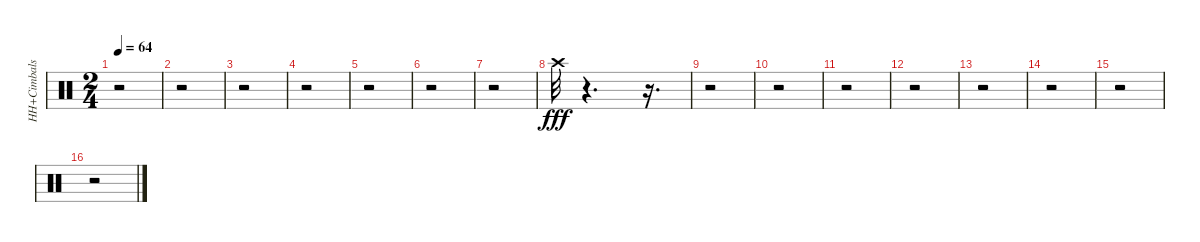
\track ("HH+Cimbals" "HH+Cimbals") {instrument percussion}
\staff {score}
\articulation defaults
\ts (2 4)
\tempo 64
\clef neutral
\ks c
r.2{dy fff} |
r.2 |
r.2 |
r.2 |
r.2 |
r.2 |
r.2 |
"Crash high (hit)".32 r.4{d} r.16{d} |
r.2 |
r.2 |
r.2 |
r.2 |
r.2 |
r.2 |
r.2 |
r.2
